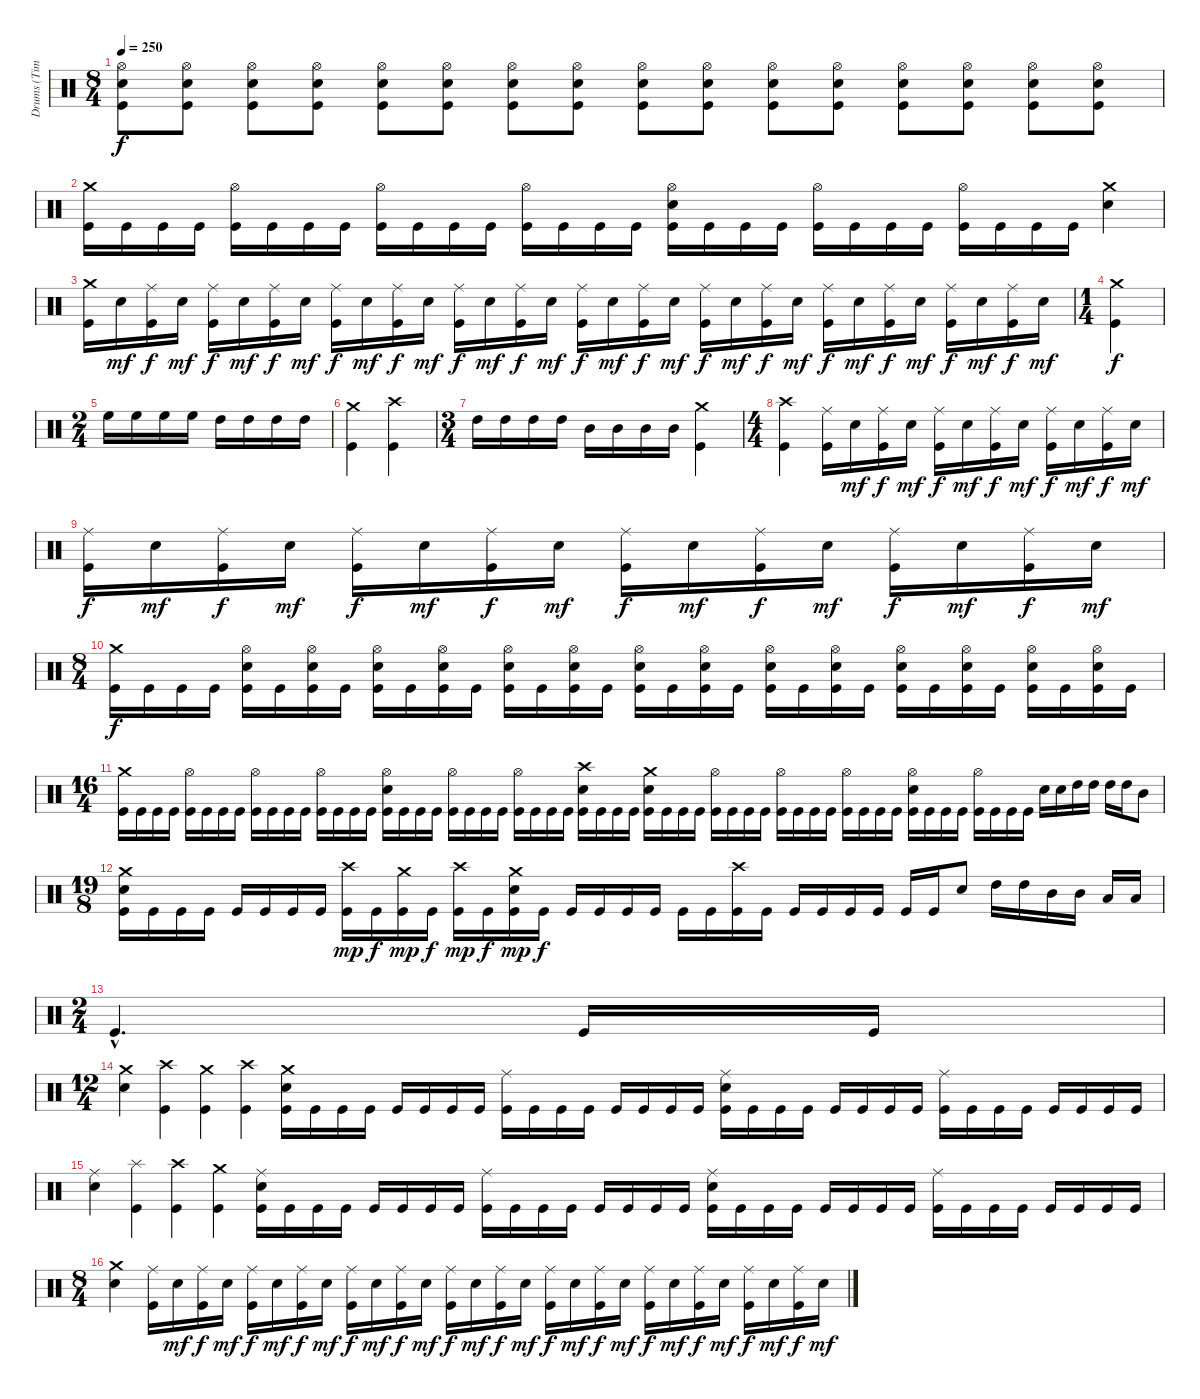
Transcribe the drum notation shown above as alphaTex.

\track ("Drums (Tim Yeung)" "Drums (Tim") {instrument percussion}
\staff {score}
\articulation defaults
\ts (8 4)
\tempo 250
\clef neutral
\ks c
("Hi-Hat (open)" "Electric Snare (hit)" "Kick (hit)").8{dy f} ("Hi-Hat (open)" "Electric Snare (hit)" "Kick (hit)").8 ("Hi-Hat (open)" "Electric Snare (hit)" "Kick (hit)").8 ("Hi-Hat (open)" "Electric Snare (hit)" "Kick (hit)").8 ("Hi-Hat (open)" "Electric Snare (hit)" "Kick (hit)").8 ("Hi-Hat (open)" "Electric Snare (hit)" "Kick (hit)").8 ("Hi-Hat (open)" "Electric Snare (hit)" "Kick (hit)").8 ("Hi-Hat (open)" "Electric Snare (hit)" "Kick (hit)").8 ("Hi-Hat (open)" "Electric Snare (hit)" "Kick (hit)").8 ("Hi-Hat (open)" "Electric Snare (hit)" "Kick (hit)").8 ("Hi-Hat (open)" "Electric Snare (hit)" "Kick (hit)").8 ("Hi-Hat (open)" "Electric Snare (hit)" "Kick (hit)").8 ("Hi-Hat (open)" "Electric Snare (hit)" "Kick (hit)").8 ("Hi-Hat (open)" "Electric Snare (hit)" "Kick (hit)").8 ("Hi-Hat (open)" "Electric Snare (hit)" "Kick (hit)").8 ("Hi-Hat (open)" "Electric Snare (hit)" "Kick (hit)").8 |
("Crash medium (hit)" "Kick (hit)").16 "Kick (hit)".16 "Kick (hit)".16 "Kick (hit)".16 ("Hi-Hat (open)" "Kick (hit)").16 "Kick (hit)".16 "Kick (hit)".16 "Kick (hit)".16 ("Hi-Hat (open)" "Kick (hit)").16 "Kick (hit)".16 "Kick (hit)".16 "Kick (hit)".16 ("Hi-Hat (open)" "Kick (hit)").16 "Kick (hit)".16 "Kick (hit)".16 "Kick (hit)".16 ("Hi-Hat (open)" "Electric Snare (hit)" "Kick (hit)").16 "Kick (hit)".16 "Kick (hit)".16 "Kick (hit)".16 ("Hi-Hat (open)" "Kick (hit)").16 "Kick (hit)".16 "Kick (hit)".16 "Kick (hit)".16 ("Hi-Hat (open)" "Kick (hit)").16 "Kick (hit)".16 "Kick (hit)".16 "Kick (hit)".16 ("Crash medium (hit)" "Electric Snare (hit)").4 |
("Crash medium (hit)" "Kick (hit)").16 "Electric Snare (hit)".16{dy mf} ("Ride (middle)" "Kick (hit)").16{dy f} "Electric Snare (hit)".16{dy mf} ("Ride (middle)" "Kick (hit)").16{dy f} "Electric Snare (hit)".16{dy mf} ("Ride (middle)" "Kick (hit)").16{dy f} "Electric Snare (hit)".16{dy mf} ("Ride (middle)" "Kick (hit)").16{dy f} "Electric Snare (hit)".16{dy mf} ("Ride (middle)" "Kick (hit)").16{dy f} "Electric Snare (hit)".16{dy mf} ("Ride (middle)" "Kick (hit)").16{dy f} "Electric Snare (hit)".16{dy mf} ("Ride (middle)" "Kick (hit)").16{dy f} "Electric Snare (hit)".16{dy mf} ("Ride (middle)" "Kick (hit)").16{dy f} "Electric Snare (hit)".16{dy mf} ("Ride (middle)" "Kick (hit)").16{dy f} "Electric Snare (hit)".16{dy mf} ("Ride (middle)" "Kick (hit)").16{dy f} "Electric Snare (hit)".16{dy mf} ("Ride (middle)" "Kick (hit)").16{dy f} "Electric Snare (hit)".16{dy mf} ("Ride (middle)" "Kick (hit)").16{dy f} "Electric Snare (hit)".16{dy mf} ("Ride (middle)" "Kick (hit)").16{dy f} "Electric Snare (hit)".16{dy mf} ("Ride (middle)" "Kick (hit)").16{dy f} "Electric Snare (hit)".16{dy mf} ("Ride (middle)" "Kick (hit)").16{dy f} "Electric Snare (hit)".16{dy mf} |
\ts (1 4)
("Crash medium (hit)" "Kick (hit)").4{dy f} |
\ts (2 4)
"High Floor Tom (hit)".16 "High Floor Tom (hit)".16 "High Floor Tom (hit)".16 "High Floor Tom (hit)".16 "High Tom (hit)".16 "High Tom (hit)".16 "High Tom (hit)".16 "High Tom (hit)".16 |
("Crash medium (hit)" "Kick (hit)").4 ("Crash high (hit)" "Kick (hit)").4 |
\ts (3 4)
"High Tom (hit)".16 "High Tom (hit)".16 "High Tom (hit)".16 "High Tom (hit)".16 "Mid Tom (hit)".16 "Mid Tom (hit)".16 "Mid Tom (hit)".16 "Mid Tom (hit)".16 ("Crash medium (hit)" "Kick (hit)").4 |
\ts (4 4)
("Crash high (hit)" "Kick (hit)").4 ("Ride (middle)" "Kick (hit)").16 "Electric Snare (hit)".16{dy mf} ("Ride (middle)" "Kick (hit)").16{dy f} "Electric Snare (hit)".16{dy mf} ("Ride (middle)" "Kick (hit)").16{dy f} "Electric Snare (hit)".16{dy mf} ("Ride (middle)" "Kick (hit)").16{dy f} "Electric Snare (hit)".16{dy mf} ("Ride (middle)" "Kick (hit)").16{dy f} "Electric Snare (hit)".16{dy mf} ("Ride (middle)" "Kick (hit)").16{dy f} "Electric Snare (hit)".16{dy mf} |
("Ride (middle)" "Kick (hit)").16{dy f} "Electric Snare (hit)".16{dy mf} ("Ride (middle)" "Kick (hit)").16{dy f} "Electric Snare (hit)".16{dy mf} ("Ride (middle)" "Kick (hit)").16{dy f} "Electric Snare (hit)".16{dy mf} ("Ride (middle)" "Kick (hit)").16{dy f} "Electric Snare (hit)".16{dy mf} ("Ride (middle)" "Kick (hit)").16{dy f} "Electric Snare (hit)".16{dy mf} ("Ride (middle)" "Kick (hit)").16{dy f} "Electric Snare (hit)".16{dy mf} ("Ride (middle)" "Kick (hit)").16{dy f} "Electric Snare (hit)".16{dy mf} ("Ride (middle)" "Kick (hit)").16{dy f} "Electric Snare (hit)".16{dy mf} |
\ts (8 4)
("Crash medium (hit)" "Kick (hit)").16{dy f} "Kick (hit)".16 "Kick (hit)".16 "Kick (hit)".16 ("Hi-Hat (open)" "Electric Snare (hit)" "Kick (hit)").16 "Kick (hit)".16 ("Hi-Hat (open)" "Electric Snare (hit)" "Kick (hit)").16 "Kick (hit)".16 ("Hi-Hat (open)" "Electric Snare (hit)" "Kick (hit)").16 "Kick (hit)".16 ("Hi-Hat (open)" "Electric Snare (hit)" "Kick (hit)").16 "Kick (hit)".16 ("Hi-Hat (open)" "Electric Snare (hit)" "Kick (hit)").16 "Kick (hit)".16 ("Hi-Hat (open)" "Electric Snare (hit)" "Kick (hit)").16 "Kick (hit)".16 ("Hi-Hat (open)" "Electric Snare (hit)" "Kick (hit)").16 "Kick (hit)".16 ("Hi-Hat (open)" "Electric Snare (hit)" "Kick (hit)").16 "Kick (hit)".16 ("Hi-Hat (open)" "Electric Snare (hit)" "Kick (hit)").16 "Kick (hit)".16 ("Hi-Hat (open)" "Electric Snare (hit)" "Kick (hit)").16 "Kick (hit)".16 ("Hi-Hat (open)" "Electric Snare (hit)" "Kick (hit)").16 "Kick (hit)".16 ("Hi-Hat (open)" "Electric Snare (hit)" "Kick (hit)").16 "Kick (hit)".16 ("Hi-Hat (open)" "Electric Snare (hit)" "Kick (hit)").16 "Kick (hit)".16 ("Hi-Hat (open)" "Electric Snare (hit)" "Kick (hit)").16 "Kick (hit)".16 |
\ts (16 4)
("Crash medium (hit)" "Kick (hit)").16 "Kick (hit)".16 "Kick (hit)".16 "Kick (hit)".16 ("Hi-Hat (open)" "Kick (hit)").16 "Kick (hit)".16 "Kick (hit)".16 "Kick (hit)".16 ("Hi-Hat (open)" "Kick (hit)").16 "Kick (hit)".16 "Kick (hit)".16 "Kick (hit)".16 ("Hi-Hat (open)" "Kick (hit)").16 "Kick (hit)".16 "Kick (hit)".16 "Kick (hit)".16 ("Hi-Hat (open)" "Electric Snare (hit)" "Kick (hit)").16 "Kick (hit)".16 "Kick (hit)".16 "Kick (hit)".16 ("Hi-Hat (open)" "Kick (hit)").16 "Kick (hit)".16 "Kick (hit)".16 "Kick (hit)".16 ("Hi-Hat (open)" "Kick (hit)").16 "Kick (hit)".16 "Kick (hit)".16 "Kick (hit)".16 ("Crash high (hit)" "Electric Snare (hit)" "Kick (hit)").16 "Kick (hit)".16 "Kick (hit)".16 "Kick (hit)".16 ("Crash medium (hit)" "Electric Snare (hit)" "Kick (hit)").16 "Kick (hit)".16 "Kick (hit)".16 "Kick (hit)".16 ("Hi-Hat (open)" "Kick (hit)").16 "Kick (hit)".16 "Kick (hit)".16 "Kick (hit)".16 ("Hi-Hat (open)" "Kick (hit)").16 "Kick (hit)".16 "Kick (hit)".16 "Kick (hit)".16 ("Hi-Hat (open)" "Kick (hit)").16 "Kick (hit)".16 "Kick (hit)".16 "Kick (hit)".16 ("Hi-Hat (open)" "Electric Snare (hit)" "Kick (hit)").16 "Kick (hit)".16 "Kick (hit)".16 "Kick (hit)".16 ("Hi-Hat (open)" "Kick (hit)").16 "Kick (hit)".16 "Kick (hit)".16 "Kick (hit)".16 "Electric Snare (hit)".16 "Electric Snare (hit)".16 "High Tom (hit)".16 "High Tom (hit)".16 "High Tom (hit)".16 "High Tom (hit)".16 "Mid Tom (hit)".8 |
\ts (19 8)
("Crash medium (hit)" "Electric Snare (hit)" "Kick (hit)").16 "Kick (hit)".16 "Kick (hit)".16 "Kick (hit)".16 "Kick (hit)".16 "Kick (hit)".16 "Kick (hit)".16 "Kick (hit)".16 ("Crash high (hit)" "Kick (hit)").16{dy mp} "Kick (hit)".16{dy f} ("Crash medium (hit)" "Kick (hit)").16{dy mp} "Kick (hit)".16{dy f} ("Crash high (hit)" "Kick (hit)").16{dy mp} "Kick (hit)".16{dy f} ("Crash medium (hit)" "Electric Snare (hit)" "Kick (hit)").16{dy mp} "Kick (hit)".16{dy f} "Kick (hit)".16 "Kick (hit)".16 "Kick (hit)".16 "Kick (hit)".16 "Kick (hit)".16 "Kick (hit)".16 ("Crash high (hit)" "Kick (hit)").16 "Kick (hit)".16 "Kick (hit)".16 "Kick (hit)".16 "Kick (hit)".16 "Kick (hit)".16 "Kick (hit)".16 "Kick (hit)".16 "Electric Snare (hit)".8 "High Tom (hit)".16 "High Tom (hit)".16 "Mid Tom (hit)".16 "Mid Tom (hit)".16 "Low Tom (hit)".16 "Low Tom (hit)".16 |
\ts (2 4)
"Kick (hit)"{hac}.4{d} "Kick (hit)".16 "Kick (hit)".16 |
\ts (12 4)
("Crash medium (hit)" "Electric Snare (hit)").4 ("Crash high (hit)" "Kick (hit)").4 ("Crash medium (hit)" "Kick (hit)").4 ("Crash high (hit)" "Kick (hit)").4 ("Crash medium (hit)" "Electric Snare (hit)" "Kick (hit)").16 "Kick (hit)".16 "Kick (hit)".16 "Kick (hit)".16 "Kick (hit)".16 "Kick (hit)".16 "Kick (hit)".16 "Kick (hit)".16 ("Ride (middle)" "Kick (hit)").16 "Kick (hit)".16 "Kick (hit)".16 "Kick (hit)".16 "Kick (hit)".16 "Kick (hit)".16 "Kick (hit)".16 "Kick (hit)".16 ("Ride (middle)" "Electric Snare (hit)" "Kick (hit)").16 "Kick (hit)".16 "Kick (hit)".16 "Kick (hit)".16 "Kick (hit)".16 "Kick (hit)".16 "Kick (hit)".16 "Kick (hit)".16 ("Ride (middle)" "Kick (hit)").16 "Kick (hit)".16 "Kick (hit)".16 "Kick (hit)".16 "Kick (hit)".16 "Kick (hit)".16 "Kick (hit)".16 "Kick (hit)".16 |
("Ride (middle)" "Electric Snare (hit)").4 ("Splash (hit)" "Kick (hit)").4 ("Crash high (hit)" "Kick (hit)").4 ("Crash medium (hit)" "Kick (hit)").4 ("Ride (middle)" "Electric Snare (hit)" "Kick (hit)").16 "Kick (hit)".16 "Kick (hit)".16 "Kick (hit)".16 "Kick (hit)".16 "Kick (hit)".16 "Kick (hit)".16 "Kick (hit)".16 ("Ride (middle)" "Kick (hit)").16 "Kick (hit)".16 "Kick (hit)".16 "Kick (hit)".16 "Kick (hit)".16 "Kick (hit)".16 "Kick (hit)".16 "Kick (hit)".16 ("Ride (middle)" "Electric Snare (hit)" "Kick (hit)").16 "Kick (hit)".16 "Kick (hit)".16 "Kick (hit)".16 "Kick (hit)".16 "Kick (hit)".16 "Kick (hit)".16 "Kick (hit)".16 ("Ride (middle)" "Kick (hit)").16 "Kick (hit)".16 "Kick (hit)".16 "Kick (hit)".16 "Kick (hit)".16 "Kick (hit)".16 "Kick (hit)".16 "Kick (hit)".16 |
\ts (8 4)
("Crash medium (hit)" "Electric Snare (hit)").4 ("Ride (middle)" "Kick (hit)").16 "Electric Snare (hit)".16{dy mf} ("Ride (middle)" "Kick (hit)").16{dy f} "Electric Snare (hit)".16{dy mf} ("Ride (middle)" "Kick (hit)").16{dy f} "Electric Snare (hit)".16{dy mf} ("Ride (middle)" "Kick (hit)").16{dy f} "Electric Snare (hit)".16{dy mf} ("Ride (middle)" "Kick (hit)").16{dy f} "Electric Snare (hit)".16{dy mf} ("Ride (middle)" "Kick (hit)").16{dy f} "Electric Snare (hit)".16{dy mf} ("Ride (middle)" "Kick (hit)").16{dy f} "Electric Snare (hit)".16{dy mf} ("Ride (middle)" "Kick (hit)").16{dy f} "Electric Snare (hit)".16{dy mf} ("Ride (middle)" "Kick (hit)").16{dy f} "Electric Snare (hit)".16{dy mf} ("Ride (middle)" "Kick (hit)").16{dy f} "Electric Snare (hit)".16{dy mf} ("Ride (middle)" "Kick (hit)").16{dy f} "Electric Snare (hit)".16{dy mf} ("Ride (middle)" "Kick (hit)").16{dy f} "Electric Snare (hit)".16{dy mf} ("Ride (middle)" "Kick (hit)").16{dy f} "Electric Snare (hit)".16{dy mf} ("Ride (middle)" "Kick (hit)").16{dy f} "Electric Snare (hit)".16{dy mf}
